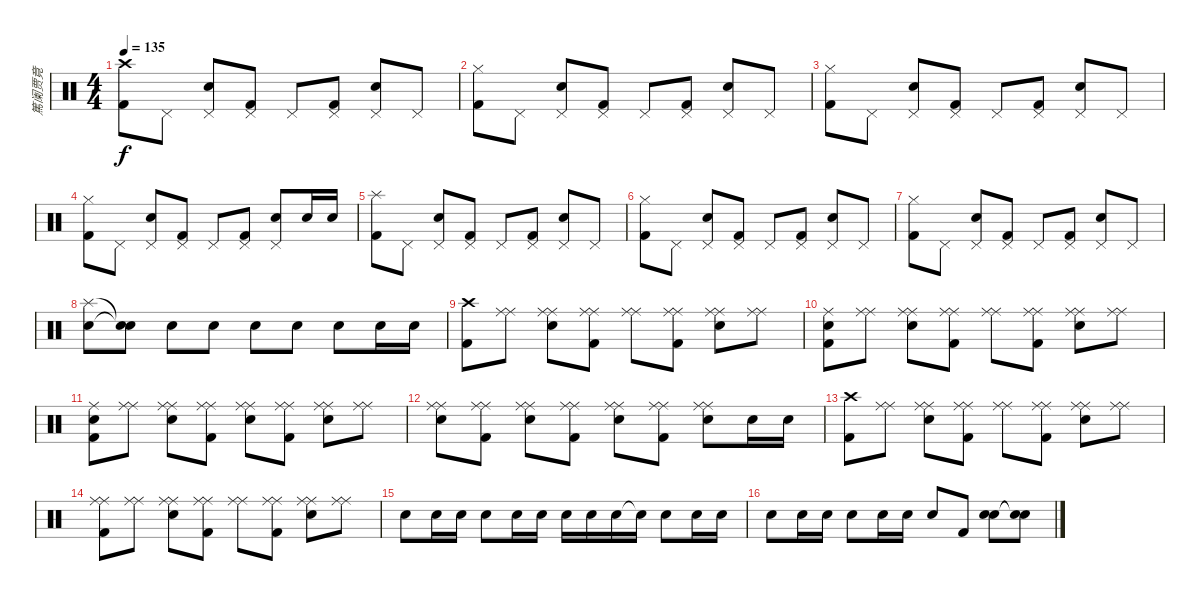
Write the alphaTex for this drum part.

\track ("篤阑贾竟" "篤阑贾竟") {instrument percussion}
\staff {score}
\articulation defaults
\ts (4 4)
\tempo 135
\clef neutral
\ks c
("Crash high (hit)" "Kick (hit) 2").8{dy f} "Pedal Hi-Hat (hit)".8 ("Pedal Hi-Hat (hit)" "Electric Snare (hit)").8 ("Pedal Hi-Hat (hit)" "Kick (hit) 2").8 "Pedal Hi-Hat (hit)".8 ("Pedal Hi-Hat (hit)" "Kick (hit) 2").8 ("Pedal Hi-Hat (hit)" "Electric Snare (hit)").8 "Pedal Hi-Hat (hit)".8 |
("Hi-Hat (closed)" "Kick (hit) 2").8 "Pedal Hi-Hat (hit)".8 ("Pedal Hi-Hat (hit)" "Electric Snare (hit)").8 ("Pedal Hi-Hat (hit)" "Kick (hit) 2").8 "Pedal Hi-Hat (hit)".8 ("Pedal Hi-Hat (hit)" "Kick (hit) 2").8 ("Pedal Hi-Hat (hit)" "Electric Snare (hit)").8 "Pedal Hi-Hat (hit)".8 |
("Hi-Hat (closed)" "Kick (hit) 2").8 "Pedal Hi-Hat (hit)".8 ("Pedal Hi-Hat (hit)" "Electric Snare (hit)").8 ("Pedal Hi-Hat (hit)" "Kick (hit) 2").8 "Pedal Hi-Hat (hit)".8 ("Pedal Hi-Hat (hit)" "Kick (hit) 2").8 ("Pedal Hi-Hat (hit)" "Electric Snare (hit)").8 "Pedal Hi-Hat (hit)".8 |
("Hi-Hat (closed)" "Kick (hit) 2").8 "Pedal Hi-Hat (hit)".8 ("Pedal Hi-Hat (hit)" "Electric Snare (hit)").8 ("Pedal Hi-Hat (hit)" "Kick (hit) 2").8 "Pedal Hi-Hat (hit)".8 ("Pedal Hi-Hat (hit)" "Kick (hit) 2").8 ("Pedal Hi-Hat (hit)" "Electric Snare (hit)").8 "Electric Snare (hit)".16 "Electric Snare (hit)".16 |
("Splash (hit)" "Kick (hit) 2").8 "Pedal Hi-Hat (hit)".8 ("Pedal Hi-Hat (hit)" "Electric Snare (hit)").8 ("Pedal Hi-Hat (hit)" "Kick (hit) 2").8 "Pedal Hi-Hat (hit)".8 ("Pedal Hi-Hat (hit)" "Kick (hit) 2").8 ("Pedal Hi-Hat (hit)" "Electric Snare (hit)").8 "Pedal Hi-Hat (hit)".8 |
("Hi-Hat (closed)" "Kick (hit) 2").8 "Pedal Hi-Hat (hit)".8 ("Pedal Hi-Hat (hit)" "Electric Snare (hit)").8 ("Pedal Hi-Hat (hit)" "Kick (hit) 2").8 "Pedal Hi-Hat (hit)".8 ("Pedal Hi-Hat (hit)" "Kick (hit) 2").8 ("Pedal Hi-Hat (hit)" "Electric Snare (hit)").8 "Pedal Hi-Hat (hit)".8 |
("Hi-Hat (closed)" "Kick (hit) 2").8 "Pedal Hi-Hat (hit)".8 ("Pedal Hi-Hat (hit)" "Electric Snare (hit)").8 ("Pedal Hi-Hat (hit)" "Kick (hit) 2").8 "Pedal Hi-Hat (hit)".8 ("Pedal Hi-Hat (hit)" "Kick (hit) 2").8 ("Pedal Hi-Hat (hit)" "Electric Snare (hit)").8 "Pedal Hi-Hat (hit)".8 |
("Splash (hit)" "Electric Snare (hit)").8 ("Snare (hit)"{t} "Snare (hit)"{t}).8 "Electric Snare (hit)".8 "Electric Snare (hit)".8 "Electric Snare (hit)".8 "Electric Snare (hit)".8 "Electric Snare (hit)".8 "Electric Snare (hit)".16 "Electric Snare (hit)".16 |
("Crash high (hit)" "Kick (hit) 2").8 ("Ride (middle)" "Ride (middle)").8 ("Ride (middle)" "Electric Snare (hit)" "Ride (middle)").8 ("Ride (middle)" "Kick (hit) 2" "Ride (middle)").8 ("Ride (middle)" "Ride (middle)").8 ("Ride (middle)" "Kick (hit) 2" "Ride (middle)").8 ("Ride (middle)" "Electric Snare (hit)" "Ride (middle)").8 ("Ride (middle)" "Ride (middle)").8 |
("Ride (middle)" "Kick (hit) 2" "Snare (hit)").8 ("Ride (middle)" "Ride (middle)").8 ("Ride (middle)" "Electric Snare (hit)" "Ride (middle)").8 ("Ride (middle)" "Kick (hit) 2" "Ride (middle)").8 ("Ride (middle)" "Ride (middle)").8 ("Ride (middle)" "Kick (hit) 2" "Ride (middle)").8 ("Ride (middle)" "Electric Snare (hit)" "Ride (middle)").8 ("Ride (middle)" "Ride (middle)").8 |
("Ride (middle)" "Kick (hit) 2" "Snare (hit)").8 ("Ride (middle)" "Ride (middle)").8 ("Ride (middle)" "Electric Snare (hit)" "Ride (middle)").8 ("Ride (middle)" "Kick (hit) 2" "Ride (middle)").8 ("Ride (middle)" "Electric Snare (hit)" "Ride (middle)").8 ("Ride (middle)" "Kick (hit) 2" "Ride (middle)").8 ("Ride (middle)" "Electric Snare (hit)" "Ride (middle)").8 ("Ride (middle)" "Ride (middle)").8 |
("Ride (middle)" "Electric Snare (hit)" "Ride (middle)").8 ("Ride (middle)" "Kick (hit) 2" "Ride (middle)").8 ("Ride (middle)" "Electric Snare (hit)" "Ride (middle)").8 ("Ride (middle)" "Kick (hit) 2" "Ride (middle)").8 ("Ride (middle)" "Electric Snare (hit)" "Ride (middle)").8 ("Ride (middle)" "Kick (hit) 2" "Ride (middle)").8 ("Ride (middle)" "Electric Snare (hit)" "Ride (middle)").8 "Electric Snare (hit)".16 "Electric Snare (hit)".16 |
("Crash high (hit)" "Kick (hit) 2").8 ("Ride (middle)" "Ride (middle)").8 ("Ride (middle)" "Electric Snare (hit)" "Ride (middle)").8 ("Ride (middle)" "Kick (hit) 2" "Ride (middle)").8 ("Ride (middle)" "Ride (middle)").8 ("Ride (middle)" "Kick (hit) 2" "Ride (middle)").8 ("Ride (middle)" "Electric Snare (hit)" "Ride (middle)").8 ("Ride (middle)" "Ride (middle)").8 |
("Ride (middle)" "Kick (hit) 2" "Ride (middle)").8 ("Ride (middle)" "Ride (middle)").8 ("Ride (middle)" "Electric Snare (hit)" "Ride (middle)").8 ("Ride (middle)" "Kick (hit) 2" "Ride (middle)").8 ("Ride (middle)" "Ride (middle)").8 ("Ride (middle)" "Kick (hit) 2" "Ride (middle)").8 ("Ride (middle)" "Electric Snare (hit)" "Ride (middle)").8 ("Ride (middle)" "Ride (middle)").8 |
"Electric Snare (hit)".8 "Electric Snare (hit)".16 "Electric Snare (hit)".16 "Electric Snare (hit)".8 "Electric Snare (hit)".16 "Electric Snare (hit)".16 "Electric Snare (hit)".16 "Electric Snare (hit)".16 "Electric Snare (hit)".16 "Snare (hit)"{t}.16 "Electric Snare (hit)".8 "Electric Snare (hit)".16 "Electric Snare (hit)".16 |
"Electric Snare (hit)".8 "Electric Snare (hit)".16 "Electric Snare (hit)".16 "Electric Snare (hit)".8 "Electric Snare (hit)".16 "Electric Snare (hit)".16 "Electric Snare (hit)".8 "Kick (hit) 2".8 ("Electric Snare (hit)" "Electric Snare (hit)").8 ("Snare (hit)"{t} "Snare (hit)"{t}).8
